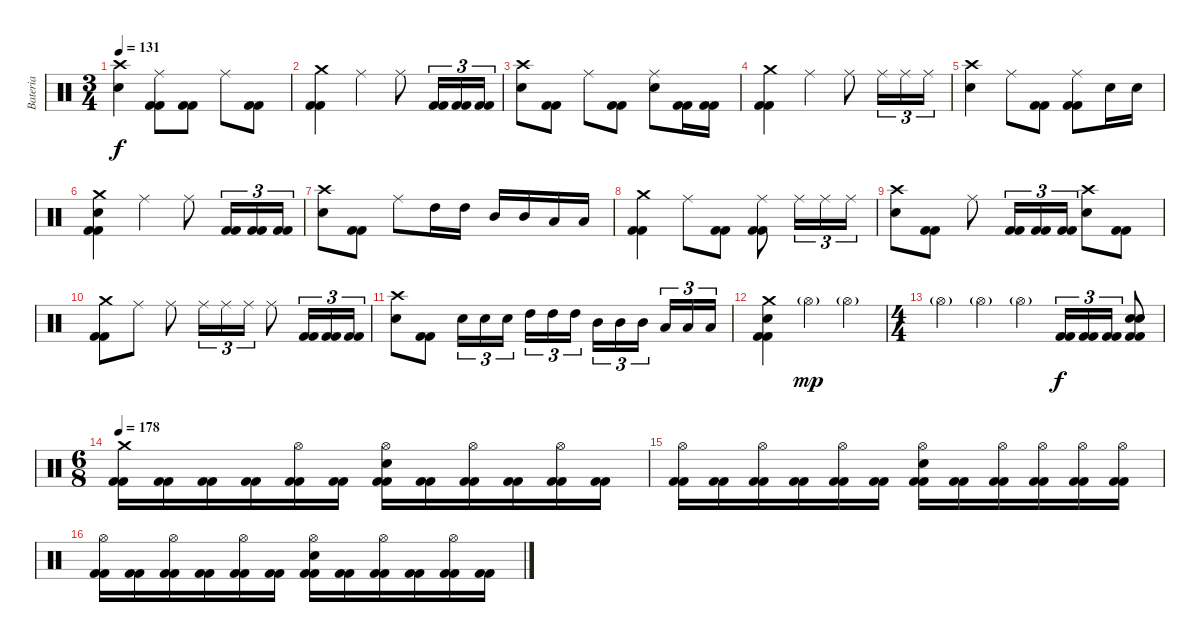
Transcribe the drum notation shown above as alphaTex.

\track ("Bateria" "Bateria") {instrument percussion}
\staff {score}
\articulation defaults
\ts (3 4)
\tempo 131
\clef neutral
\ks c
("Snare (hit) 2" "Crash high (hit)").4{dy f} ("Kick (hit) 2" "Kick (hit) 2" "Ride (middle)").8 ("Kick (hit) 2" "Kick (hit) 2").8 "Ride (middle)".8 ("Kick (hit) 2" "Kick (hit) 2").8 |
("Kick (hit) 2" "Kick (hit) 2" "Crash medium (hit)").4 "Ride (middle)".4 "Ride (middle)".8 ("Kick (hit) 2" "Kick (hit) 2").16{tu (3 2)} ("Kick (hit) 2" "Kick (hit) 2").16{tu (3 2)} ("Kick (hit) 2" "Kick (hit) 2").16{tu (3 2)} |
("Snare (hit) 2" "Crash high (hit)").8 ("Kick (hit) 2" "Kick (hit) 2").8 "Ride (middle)".8 ("Kick (hit) 2" "Kick (hit) 2").8 ("Snare (hit) 2" "Ride (middle)").8 ("Kick (hit) 2" "Kick (hit) 2").16 ("Kick (hit) 2" "Kick (hit) 2").16 |
("Kick (hit) 2" "Kick (hit) 2" "Crash medium (hit)").4 "Ride (middle)".4 "Ride (middle)".8 "Ride (middle)".16{tu (3 2)} "Ride (middle)".16{tu (3 2)} "Ride (middle)".16{tu (3 2)} |
("Snare (hit) 2" "Crash high (hit)").4 "Ride (middle)".8 ("Kick (hit) 2" "Kick (hit) 2").8 ("Kick (hit) 2" "Kick (hit) 2" "Ride (middle)").8 "Snare (hit) 2".16 "Snare (hit) 2".16 |
("Kick (hit) 2" "Kick (hit) 2" "Snare (hit) 2" "Crash medium (hit)").4 "Ride (middle)".4 "Ride (middle)".8 ("Kick (hit) 2" "Kick (hit) 2").16{tu (3 2)} ("Kick (hit) 2" "Kick (hit) 2").16{tu (3 2)} ("Kick (hit) 2" "Kick (hit) 2").16{tu (3 2)} |
("Snare (hit) 2" "Crash high (hit)").8 ("Kick (hit) 2" "Kick (hit) 2").8 "Ride (middle)".8 "High Tom (hit)".16 "High Tom (hit)".16 "Mid Tom (hit)".16 "Mid Tom (hit)".16 "Low Tom (hit)".16 "Low Tom (hit)".16 |
("Kick (hit) 2" "Kick (hit) 2" "Crash medium (hit)").4 "Ride (middle)".8 ("Kick (hit) 2" "Kick (hit) 2").8 ("Kick (hit) 2" "Kick (hit) 2" "Ride (middle)").8 "Ride (middle)".16{tu (3 2)} "Ride (middle)".16{tu (3 2)} "Ride (middle)".16{tu (3 2)} |
("Snare (hit) 2" "Crash high (hit)").8 ("Kick (hit) 2" "Kick (hit) 2").8 "Ride (middle)".8 ("Kick (hit) 2" "Kick (hit) 2").16{tu (3 2)} ("Kick (hit) 2" "Kick (hit) 2").16{tu (3 2)} ("Kick (hit) 2" "Kick (hit) 2").16{tu (3 2)} ("Snare (hit) 2" "Crash high (hit)").8 ("Kick (hit) 2" "Kick (hit) 2").8 |
("Kick (hit) 2" "Kick (hit) 2" "Crash medium (hit)").8 "Ride (middle)".8 "Ride (middle)".8 "Ride (middle)".16{tu (3 2)} "Ride (middle)".16{tu (3 2)} "Ride (middle)".16{tu (3 2)} "Ride (middle)".8 ("Kick (hit) 2" "Kick (hit) 2").16{tu (3 2)} ("Kick (hit) 2" "Kick (hit) 2").16{tu (3 2)} ("Kick (hit) 2" "Kick (hit) 2").16{tu (3 2)} |
("Snare (hit) 2" "Crash high (hit)").8 ("Kick (hit) 2" "Kick (hit) 2").8 "Electric Snare (hit)".16{tu (3 2)} "Electric Snare (hit)".16{tu (3 2)} "Electric Snare (hit)".16{tu (3 2)} "High Tom (hit)".16{tu (3 2)} "High Tom (hit)".16{tu (3 2)} "High Tom (hit)".16{tu (3 2)} "Mid Tom (hit)".16{tu (3 2)} "Mid Tom (hit)".16{tu (3 2)} "Mid Tom (hit)".16{tu (3 2)} "Low Tom (hit)".16{tu (3 2)} "Low Tom (hit)".16{tu (3 2)} "Low Tom (hit)".16{tu (3 2)} |
("Kick (hit) 2" "Kick (hit) 2" "Snare (hit) 2" "Crash medium (hit)").4 "Hi-Hat (open)"{g}.4{dy mp} "Hi-Hat (open)"{g}.4 |
\ts (4 4)
"Hi-Hat (open)"{g}.4 "Hi-Hat (open)"{g}.4 "Hi-Hat (open)"{g}.4 ("Kick (hit) 2" "Kick (hit) 2").16{tu (3 2) dy f} ("Kick (hit) 2" "Kick (hit) 2").16{tu (3 2)} ("Kick (hit) 2" "Kick (hit) 2").16{tu (3 2)} ("Kick (hit) 2" "Kick (hit) 2" "Snare (hit) 2" "Snare (hit) 2").8 |
\ts (6 8)
\tempo 178
("Kick (hit) 2" "Kick (hit) 2" "Crash medium (hit)").16 ("Kick (hit) 2" "Kick (hit) 2").16 ("Kick (hit) 2" "Kick (hit) 2").16 ("Kick (hit) 2" "Kick (hit) 2").16 ("Kick (hit) 2" "Kick (hit) 2" "Hi-Hat (open)").16 ("Kick (hit) 2" "Kick (hit) 2").16 ("Kick (hit) 2" "Kick (hit) 2" "Snare (hit) 2" "Hi-Hat (open)").16 ("Kick (hit) 2" "Kick (hit) 2").16 ("Kick (hit) 2" "Kick (hit) 2" "Hi-Hat (open)").16 ("Kick (hit) 2" "Kick (hit) 2").16 ("Kick (hit) 2" "Kick (hit) 2" "Hi-Hat (open)").16 ("Kick (hit) 2" "Kick (hit) 2").16 |
("Kick (hit) 2" "Kick (hit) 2" "Hi-Hat (open)").16 ("Kick (hit) 2" "Kick (hit) 2").16 ("Kick (hit) 2" "Kick (hit) 2" "Hi-Hat (open)").16 ("Kick (hit) 2" "Kick (hit) 2").16 ("Kick (hit) 2" "Kick (hit) 2" "Hi-Hat (open)").16 ("Kick (hit) 2" "Kick (hit) 2").16 ("Kick (hit) 2" "Kick (hit) 2" "Snare (hit) 2" "Hi-Hat (open)").16 ("Kick (hit) 2" "Kick (hit) 2").16 ("Kick (hit) 2" "Kick (hit) 2" "Hi-Hat (open)").16 ("Kick (hit) 2" "Kick (hit) 2" "Hi-Hat (open)").16 ("Kick (hit) 2" "Kick (hit) 2" "Hi-Hat (open)").16 ("Kick (hit) 2" "Kick (hit) 2" "Hi-Hat (open)").16 |
("Kick (hit) 2" "Kick (hit) 2" "Hi-Hat (open)").16 ("Kick (hit) 2" "Kick (hit) 2").16 ("Kick (hit) 2" "Kick (hit) 2" "Hi-Hat (open)").16 ("Kick (hit) 2" "Kick (hit) 2").16 ("Kick (hit) 2" "Kick (hit) 2" "Hi-Hat (open)").16 ("Kick (hit) 2" "Kick (hit) 2").16 ("Kick (hit) 2" "Kick (hit) 2" "Snare (hit) 2" "Hi-Hat (open)").16 ("Kick (hit) 2" "Kick (hit) 2").16 ("Kick (hit) 2" "Kick (hit) 2" "Hi-Hat (open)").16 ("Kick (hit) 2" "Kick (hit) 2").16 ("Kick (hit) 2" "Kick (hit) 2" "Hi-Hat (open)").16 ("Kick (hit) 2" "Kick (hit) 2").16
